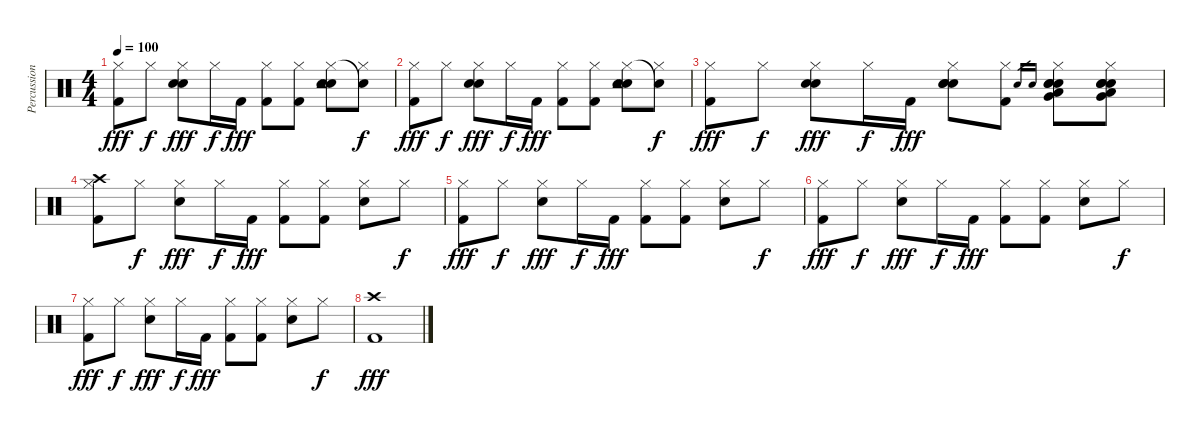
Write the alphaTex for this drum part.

\track ("Percussion" "Percussion") {instrument percussion}
\staff {score}
\articulation defaults
\ts (4 4)
\tempo 100
\clef neutral
\ks c
("Kick (hit) 2" "Hi-Hat (closed)").8{dy fff} "Hi-Hat (closed)".8{dy f} ("Electric Snare (hit)" "Hi-Hat (closed)" "Hand Clap (hit)").8{dy fff} "Hi-Hat (closed)".16{dy f} "Kick (hit) 2".16{dy fff} ("Kick (hit) 2" "Hi-Hat (closed)").8 ("Kick (hit) 2" "Hi-Hat (closed)").8 ("Electric Snare (hit)" "Hi-Hat (closed)" "Hand Clap (hit)" "Tambourine (hit)").8 ("Hi-Hat (closed)" "Snare (hit)"{t}).8{dy f} |
("Kick (hit) 2" "Hi-Hat (closed)").8{dy fff} "Hi-Hat (closed)".8{dy f} ("Electric Snare (hit)" "Hi-Hat (closed)" "Hand Clap (hit)").8{dy fff} "Hi-Hat (closed)".16{dy f} "Kick (hit) 2".16{dy fff} ("Kick (hit) 2" "Hi-Hat (closed)").8 ("Kick (hit) 2" "Hi-Hat (closed)").8 ("Electric Snare (hit)" "Hi-Hat (closed)" "Hand Clap (hit)" "Tambourine (hit)").8 ("Hi-Hat (closed)" "Snare (hit)"{t}).8{dy f} |
("Kick (hit) 2" "Hi-Hat (closed)").8{dy fff} "Hi-Hat (closed)".8{dy f} ("Electric Snare (hit)" "Hi-Hat (closed)" "Hand Clap (hit)").8{dy fff} "Hi-Hat (closed)".16{dy f} "Kick (hit) 2".16{dy fff} ("Electric Snare (hit)" "Hi-Hat (closed)" "Electric Snare (hit)" "Electric Snare (hit)").8 ("Kick (hit) 2" "Hi-Hat (closed)").8 "Electric Snare (hit)".16{gr} "Electric Snare (hit)".16{gr} ("Electric Snare (hit)" "Hi-Hat (closed)" "Electric Snare (hit)" "Electric Snare (hit)" "Low Tom (hit)" "Very Low Tom (hit)").8 ("Electric Snare (hit)" "Hi-Hat (closed)" "Electric Snare (hit)" "Electric Snare (hit)" "Very Low Tom (hit)" "Low Floor Tom (hit)").8 |
("Kick (hit) 2" "Hi-Hat (closed)" "Crash high (hit)").8 "Hi-Hat (closed)".8{dy f} ("Electric Snare (hit)" "Hi-Hat (closed)").8{dy fff} "Hi-Hat (closed)".16{dy f} "Kick (hit) 2".16{dy fff} ("Kick (hit) 2" "Hi-Hat (closed)").8 ("Kick (hit) 2" "Hi-Hat (closed)").8 ("Electric Snare (hit)" "Hi-Hat (closed)").8 "Hi-Hat (closed)".8{dy f} |
("Kick (hit) 2" "Hi-Hat (closed)").8{dy fff} "Hi-Hat (closed)".8{dy f} ("Electric Snare (hit)" "Hi-Hat (closed)").8{dy fff} "Hi-Hat (closed)".16{dy f} "Kick (hit) 2".16{dy fff} ("Kick (hit) 2" "Hi-Hat (closed)").8 ("Kick (hit) 2" "Hi-Hat (closed)").8 ("Electric Snare (hit)" "Hi-Hat (closed)").8 "Hi-Hat (closed)".8{dy f} |
("Kick (hit) 2" "Hi-Hat (closed)").8{dy fff} "Hi-Hat (closed)".8{dy f} ("Electric Snare (hit)" "Hi-Hat (closed)").8{dy fff} "Hi-Hat (closed)".16{dy f} "Kick (hit) 2".16{dy fff} ("Kick (hit) 2" "Hi-Hat (closed)").8 ("Kick (hit) 2" "Hi-Hat (closed)").8 ("Electric Snare (hit)" "Hi-Hat (closed)").8 "Hi-Hat (closed)".8{dy f} |
("Kick (hit) 2" "Hi-Hat (closed)").8{dy fff} "Hi-Hat (closed)".8{dy f} ("Electric Snare (hit)" "Hi-Hat (closed)").8{dy fff} "Hi-Hat (closed)".16{dy f} "Kick (hit) 2".16{dy fff} ("Kick (hit) 2" "Hi-Hat (closed)").8 ("Kick (hit) 2" "Hi-Hat (closed)").8 ("Electric Snare (hit)" "Hi-Hat (closed)").8 "Hi-Hat (closed)".8{dy f} |
("Kick (hit) 2" "Crash high (hit)").1{dy fff}
